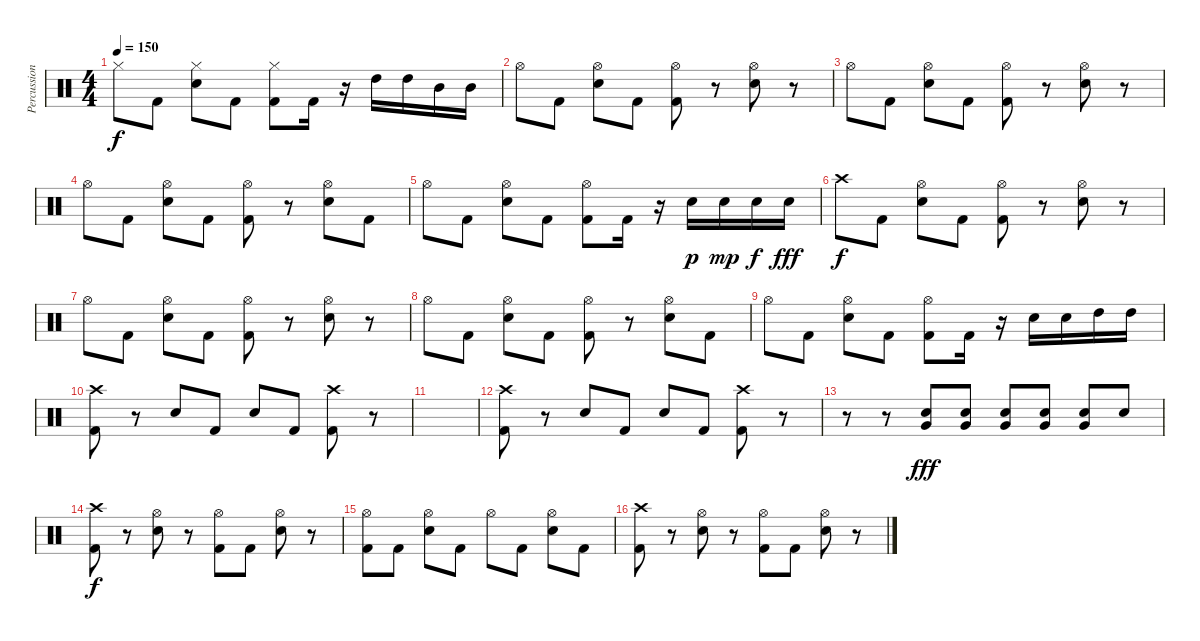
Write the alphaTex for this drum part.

\track ("Percussion" "Percussion") {instrument percussion}
\staff {score}
\articulation defaults
\ts (4 4)
\tempo 150
\clef neutral
\ks c "Hi-Hat (closed)".8{dy f} "Kick (hit) 2".8
("Hi-Hat (closed)" "Electric Snare (hit)").8 "Kick (hit) 2".8 ("Hi-Hat (closed)" "Kick (hit) 2").8 "Kick (hit) 2".16 r.16 "High Tom (hit)".16 "High Tom (hit)".16 "Mid Tom (hit)".16 "Mid Tom (hit)".16 |
"Hi-Hat (open)".8 "Kick (hit) 2".8 ("Hi-Hat (open)" "Electric Snare (hit)").8 "Kick (hit) 2".8 ("Hi-Hat (open)" "Kick (hit) 2").8 r.8 ("Hi-Hat (open)" "Electric Snare (hit)").8 r.8 |
"Hi-Hat (open)".8 "Kick (hit) 2".8 ("Hi-Hat (open)" "Electric Snare (hit)").8 "Kick (hit) 2".8 ("Hi-Hat (open)" "Kick (hit) 2").8 r.8 ("Hi-Hat (open)" "Electric Snare (hit)").8 r.8 |
"Hi-Hat (open)".8 "Kick (hit) 2".8 ("Hi-Hat (open)" "Electric Snare (hit)").8 "Kick (hit) 2".8 ("Hi-Hat (open)" "Kick (hit) 2").8 r.8 ("Hi-Hat (open)" "Electric Snare (hit)").8 "Kick (hit) 2".8 |
"Hi-Hat (open)".8 "Kick (hit) 2".8 ("Hi-Hat (open)" "Electric Snare (hit)").8 "Kick (hit) 2".8 ("Hi-Hat (open)" "Kick (hit) 2").8 "Kick (hit) 2".16 r.16 "Electric Snare (hit)".16{dy p} "Electric Snare (hit)".16{dy mp} "Electric Snare (hit)".16{dy f} "Electric Snare (hit)".16{dy fff} |
"Crash high (hit)".8{dy f} "Kick (hit) 2".8 ("Hi-Hat (open)" "Electric Snare (hit)").8 "Kick (hit) 2".8 ("Hi-Hat (open)" "Kick (hit) 2").8 r.8 ("Hi-Hat (open)" "Electric Snare (hit)").8 r.8 |
"Hi-Hat (open)".8 "Kick (hit) 2".8 ("Hi-Hat (open)" "Electric Snare (hit)").8 "Kick (hit) 2".8 ("Hi-Hat (open)" "Kick (hit) 2").8 r.8 ("Hi-Hat (open)" "Electric Snare (hit)").8 r.8 |
"Hi-Hat (open)".8 "Kick (hit) 2".8 ("Hi-Hat (open)" "Electric Snare (hit)").8 "Kick (hit) 2".8 ("Hi-Hat (open)" "Kick (hit) 2").8 r.8 ("Hi-Hat (open)" "Electric Snare (hit)").8 "Kick (hit) 2".8 |
"Hi-Hat (open)".8 "Kick (hit) 2".8 ("Hi-Hat (open)" "Electric Snare (hit)").8 "Kick (hit) 2".8 ("Hi-Hat (open)" "Kick (hit) 2").8 "Kick (hit) 2".16 r.16 "Electric Snare (hit)".16 "Electric Snare (hit)".16 "High Tom (hit)".16 "High Tom (hit)".16 |
("Crash high (hit)" "Kick (hit) 2").8 r.8 "Electric Snare (hit)".8 "Kick (hit) 2".8 "Electric Snare (hit)".8 "Kick (hit) 2".8 ("Crash high (hit)" "Kick (hit) 2").8 r.8 |
|
("Crash high (hit)" "Kick (hit) 2").8 r.8 "Electric Snare (hit)".8 "Kick (hit) 2".8 "Electric Snare (hit)".8 "Kick (hit) 2".8 ("Crash high (hit)" "Kick (hit) 2").8 r.8 |
r.8 r.8 ("Electric Snare (hit)" "Very Low Tom (hit)").8{dy fff} ("Electric Snare (hit)" "Very Low Tom (hit)").8 ("Electric Snare (hit)" "Very Low Tom (hit)").8 ("Electric Snare (hit)" "Very Low Tom (hit)").8 ("Electric Snare (hit)" "Very Low Tom (hit)").8 "Electric Snare (hit)".8 |
("Crash high (hit)" "Kick (hit) 2").8{dy f} r.8 ("Hi-Hat (open)" "Electric Snare (hit)").8 r.8 ("Hi-Hat (open)" "Kick (hit) 2").8 "Kick (hit) 2".8 ("Hi-Hat (open)" "Electric Snare (hit)").8 r.8 |
("Hi-Hat (open)" "Kick (hit) 2").8 "Kick (hit) 2".8 ("Hi-Hat (open)" "Electric Snare (hit)").8 "Kick (hit) 2".8 "Hi-Hat (open)".8 "Kick (hit) 2".8 ("Hi-Hat (open)" "Electric Snare (hit)").8 "Kick (hit) 2".8 |
("Crash high (hit)" "Kick (hit) 2").8 r.8 ("Hi-Hat (open)" "Electric Snare (hit)").8 r.8 ("Hi-Hat (open)" "Kick (hit) 2").8 "Kick (hit) 2".8 ("Hi-Hat (open)" "Electric Snare (hit)").8 r.8
